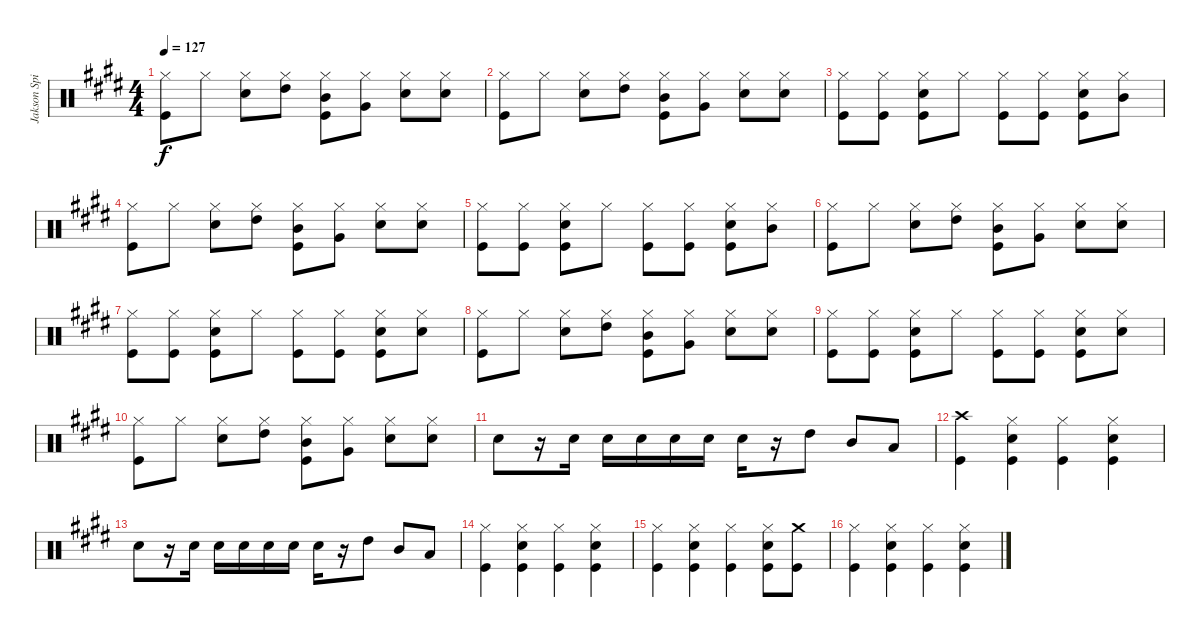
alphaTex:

\track ("Jakson Spiers Drums" "Jakson Spi") {instrument percussion}
\staff {score}
\articulation defaults
\ts (4 4)
\tempo 127
\clef neutral
\ks e
("Hi-Hat (closed)" "Kick (hit)").8{dy f} "Hi-Hat (closed)".8 ("Hi-Hat (closed)" "Snare (hit) 2").8 ("Hi-Hat (closed)" "High Tom (hit)").8 ("Hi-Hat (closed)" "Mid Tom (hit)" "Kick (hit)").8 ("Hi-Hat (closed)" "Very Low Tom (hit)").8 ("Hi-Hat (closed)" "Snare (hit) 2").8 ("Hi-Hat (closed)" "Snare (hit) 2").8 |
("Hi-Hat (closed)" "Kick (hit)").8 "Hi-Hat (closed)".8 ("Hi-Hat (closed)" "Snare (hit) 2").8 ("Hi-Hat (closed)" "High Tom (hit)").8 ("Hi-Hat (closed)" "Mid Tom (hit)" "Kick (hit)").8 ("Hi-Hat (closed)" "Very Low Tom (hit)").8 ("Hi-Hat (closed)" "Snare (hit) 2").8 ("Hi-Hat (closed)" "Snare (hit) 2").8 |
("Hi-Hat (closed)" "Kick (hit)").8 ("Hi-Hat (closed)" "Kick (hit)").8 ("Hi-Hat (closed)" "Snare (hit) 2" "Kick (hit)").8 "Hi-Hat (closed)".8 ("Hi-Hat (closed)" "Kick (hit)").8 ("Hi-Hat (closed)" "Kick (hit)").8 ("Hi-Hat (closed)" "Snare (hit) 2" "Kick (hit)").8 ("Hi-Hat (closed)" "Mid Tom (hit)").8 |
("Hi-Hat (closed)" "Kick (hit)").8 "Hi-Hat (closed)".8 ("Hi-Hat (closed)" "Snare (hit) 2").8 ("Hi-Hat (closed)" "High Tom (hit)").8 ("Hi-Hat (closed)" "Mid Tom (hit)" "Kick (hit)").8 ("Hi-Hat (closed)" "Very Low Tom (hit)").8 ("Hi-Hat (closed)" "Snare (hit) 2").8 ("Hi-Hat (closed)" "Snare (hit) 2").8 |
("Hi-Hat (closed)" "Kick (hit)").8 ("Hi-Hat (closed)" "Kick (hit)").8 ("Hi-Hat (closed)" "Snare (hit) 2" "Kick (hit)").8 "Hi-Hat (closed)".8 ("Hi-Hat (closed)" "Kick (hit)").8 ("Hi-Hat (closed)" "Kick (hit)").8 ("Hi-Hat (closed)" "Snare (hit) 2" "Kick (hit)").8 ("Hi-Hat (closed)" "Mid Tom (hit)").8 |
("Hi-Hat (closed)" "Kick (hit)").8 "Hi-Hat (closed)".8 ("Hi-Hat (closed)" "Snare (hit) 2").8 ("Hi-Hat (closed)" "High Tom (hit)").8 ("Hi-Hat (closed)" "Mid Tom (hit)" "Kick (hit)").8 ("Hi-Hat (closed)" "Very Low Tom (hit)").8 ("Hi-Hat (closed)" "Snare (hit) 2").8 ("Hi-Hat (closed)" "Snare (hit) 2").8 |
("Hi-Hat (closed)" "Kick (hit)").8 ("Hi-Hat (closed)" "Kick (hit)").8 ("Hi-Hat (closed)" "Snare (hit) 2" "Kick (hit)").8 "Hi-Hat (closed)".8 ("Hi-Hat (closed)" "Kick (hit)").8 ("Hi-Hat (closed)" "Kick (hit)").8 ("Hi-Hat (closed)" "Snare (hit) 2" "Kick (hit)").8 ("Hi-Hat (closed)" "Snare (hit) 2").8 |
("Hi-Hat (closed)" "Kick (hit)").8 "Hi-Hat (closed)".8 ("Hi-Hat (closed)" "Snare (hit) 2").8 ("Hi-Hat (closed)" "High Tom (hit)").8 ("Hi-Hat (closed)" "Mid Tom (hit)" "Kick (hit)").8 ("Hi-Hat (closed)" "Very Low Tom (hit)").8 ("Hi-Hat (closed)" "Snare (hit) 2").8 ("Hi-Hat (closed)" "Snare (hit) 2").8 |
("Hi-Hat (closed)" "Kick (hit)").8 ("Hi-Hat (closed)" "Kick (hit)").8 ("Hi-Hat (closed)" "Snare (hit) 2" "Kick (hit)").8 "Hi-Hat (closed)".8 ("Hi-Hat (closed)" "Kick (hit)").8 ("Hi-Hat (closed)" "Kick (hit)").8 ("Hi-Hat (closed)" "Snare (hit) 2" "Kick (hit)").8 ("Hi-Hat (closed)" "Snare (hit) 2").8 |
("Hi-Hat (closed)" "Kick (hit)").8 "Hi-Hat (closed)".8 ("Hi-Hat (closed)" "Snare (hit) 2").8 ("Hi-Hat (closed)" "High Tom (hit)").8 ("Hi-Hat (closed)" "Mid Tom (hit)" "Kick (hit)").8 ("Hi-Hat (closed)" "Very Low Tom (hit)").8 ("Hi-Hat (closed)" "Snare (hit) 2").8 ("Hi-Hat (closed)" "Snare (hit) 2").8 |
"Snare (hit) 2".8 r.16 "Snare (hit) 2".16 "Snare (hit) 2".16 "Snare (hit) 2".16 "Snare (hit) 2".16 "Snare (hit) 2".16 "Snare (hit) 2".16 r.16 "High Tom (hit)".8 "Mid Tom (hit)".8 "Low Tom (hit)".8 |
("Crash high (hit)" "Kick (hit)").4 ("Hi-Hat (closed)" "Snare (hit) 2" "Kick (hit)").4 ("Hi-Hat (closed)" "Kick (hit)").4 ("Hi-Hat (closed)" "Snare (hit) 2" "Kick (hit)").4 |
"Snare (hit) 2".8 r.16 "Snare (hit) 2".16 "Snare (hit) 2".16 "Snare (hit) 2".16 "Snare (hit) 2".16 "Snare (hit) 2".16 "Snare (hit) 2".16 r.16 "High Tom (hit)".8 "Mid Tom (hit)".8 "Low Tom (hit)".8 |
("Hi-Hat (closed)" "Kick (hit)").4 ("Hi-Hat (closed)" "Snare (hit) 2" "Kick (hit)").4 ("Hi-Hat (closed)" "Kick (hit)").4 ("Hi-Hat (closed)" "Snare (hit) 2" "Kick (hit)").4 |
("Hi-Hat (closed)" "Kick (hit)").4 ("Hi-Hat (closed)" "Snare (hit) 2" "Kick (hit)").4 ("Hi-Hat (closed)" "Kick (hit)").4 ("Hi-Hat (closed)" "Snare (hit) 2" "Kick (hit)").8 ("Crash medium (hit)" "Kick (hit)").8 |
("Hi-Hat (closed)" "Kick (hit)").4 ("Hi-Hat (closed)" "Snare (hit) 2" "Kick (hit)").4 ("Hi-Hat (closed)" "Kick (hit)").4 ("Hi-Hat (closed)" "Snare (hit) 2" "Kick (hit)").4
